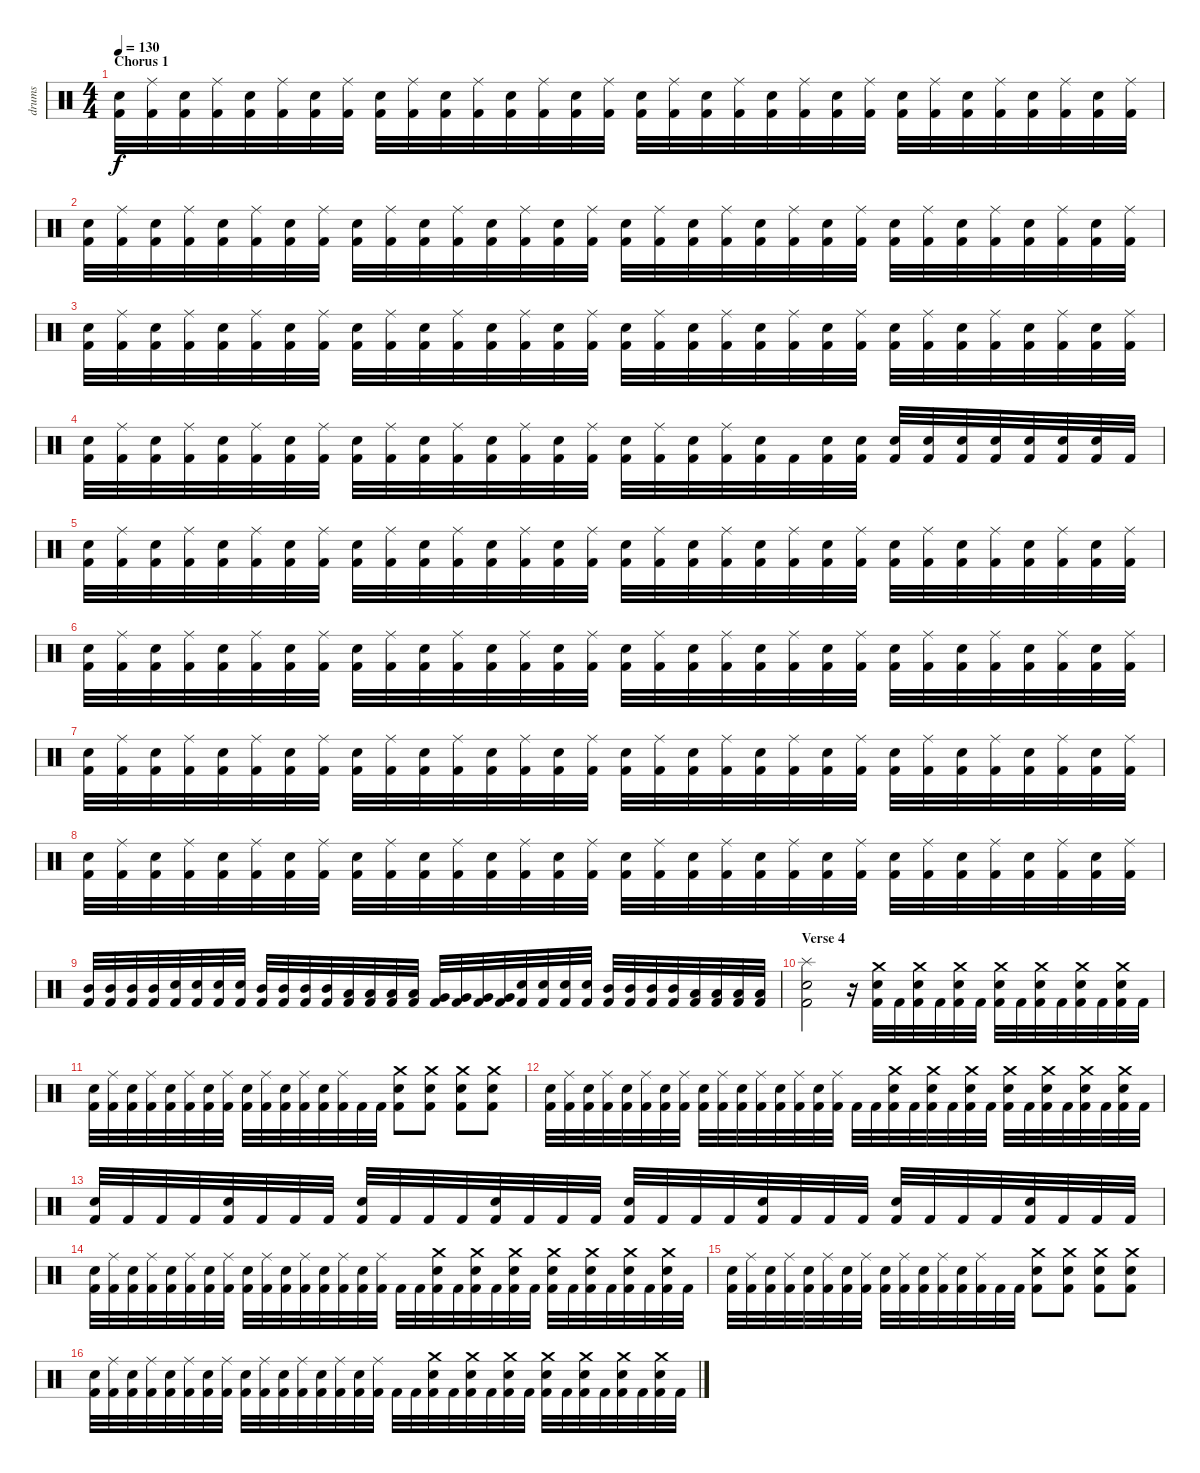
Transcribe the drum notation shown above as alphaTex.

\track ("drums" "drums") {instrument percussion}
\staff {score}
\articulation defaults
\ts (4 4)
\section ("" "Chorus 1")
\tempo 130
\clef neutral
\ks c
("Electric Snare (hit)" "Kick (hit) 2").32{dy f} ("Ride (middle)" "Kick (hit) 2").32 ("Electric Snare (hit)" "Kick (hit) 2").32 ("Ride (middle)" "Kick (hit) 2").32 ("Electric Snare (hit)" "Kick (hit) 2").32 ("Ride (middle)" "Kick (hit) 2").32 ("Electric Snare (hit)" "Kick (hit) 2").32 ("Ride (middle)" "Kick (hit) 2").32 ("Electric Snare (hit)" "Kick (hit) 2").32 ("Ride (middle)" "Kick (hit) 2").32 ("Electric Snare (hit)" "Kick (hit) 2").32 ("Ride (middle)" "Kick (hit) 2").32 ("Electric Snare (hit)" "Kick (hit) 2").32 ("Ride (middle)" "Kick (hit) 2").32 ("Electric Snare (hit)" "Kick (hit) 2").32 ("Ride (middle)" "Kick (hit) 2").32 ("Electric Snare (hit)" "Kick (hit) 2").32 ("Ride (middle)" "Kick (hit) 2").32 ("Electric Snare (hit)" "Kick (hit) 2").32 ("Ride (middle)" "Kick (hit) 2").32 ("Electric Snare (hit)" "Kick (hit) 2").32 ("Ride (middle)" "Kick (hit) 2").32 ("Electric Snare (hit)" "Kick (hit) 2").32 ("Ride (middle)" "Kick (hit) 2").32 ("Electric Snare (hit)" "Kick (hit) 2").32 ("Ride (middle)" "Kick (hit) 2").32 ("Electric Snare (hit)" "Kick (hit) 2").32 ("Ride (middle)" "Kick (hit) 2").32 ("Electric Snare (hit)" "Kick (hit) 2").32 ("Ride (middle)" "Kick (hit) 2").32 ("Electric Snare (hit)" "Kick (hit) 2").32 ("Ride (middle)" "Kick (hit) 2").32 |
("Electric Snare (hit)" "Kick (hit) 2").32 ("Ride (middle)" "Kick (hit) 2").32 ("Electric Snare (hit)" "Kick (hit) 2").32 ("Ride (middle)" "Kick (hit) 2").32 ("Electric Snare (hit)" "Kick (hit) 2").32 ("Ride (middle)" "Kick (hit) 2").32 ("Electric Snare (hit)" "Kick (hit) 2").32 ("Ride (middle)" "Kick (hit) 2").32 ("Electric Snare (hit)" "Kick (hit) 2").32 ("Ride (middle)" "Kick (hit) 2").32 ("Electric Snare (hit)" "Kick (hit) 2").32 ("Ride (middle)" "Kick (hit) 2").32 ("Electric Snare (hit)" "Kick (hit) 2").32 ("Ride (middle)" "Kick (hit) 2").32 ("Electric Snare (hit)" "Kick (hit) 2").32 ("Ride (middle)" "Kick (hit) 2").32 ("Electric Snare (hit)" "Kick (hit) 2").32 ("Ride (middle)" "Kick (hit) 2").32 ("Electric Snare (hit)" "Kick (hit) 2").32 ("Ride (middle)" "Kick (hit) 2").32 ("Electric Snare (hit)" "Kick (hit) 2").32 ("Ride (middle)" "Kick (hit) 2").32 ("Electric Snare (hit)" "Kick (hit) 2").32 ("Ride (middle)" "Kick (hit) 2").32 ("Electric Snare (hit)" "Kick (hit) 2").32 ("Ride (middle)" "Kick (hit) 2").32 ("Electric Snare (hit)" "Kick (hit) 2").32 ("Ride (middle)" "Kick (hit) 2").32 ("Electric Snare (hit)" "Kick (hit) 2").32 ("Ride (middle)" "Kick (hit) 2").32 ("Electric Snare (hit)" "Kick (hit) 2").32 ("Ride (middle)" "Kick (hit) 2").32 |
("Electric Snare (hit)" "Kick (hit) 2").32 ("Ride (middle)" "Kick (hit) 2").32 ("Electric Snare (hit)" "Kick (hit) 2").32 ("Ride (middle)" "Kick (hit) 2").32 ("Electric Snare (hit)" "Kick (hit) 2").32 ("Ride (middle)" "Kick (hit) 2").32 ("Electric Snare (hit)" "Kick (hit) 2").32 ("Ride (middle)" "Kick (hit) 2").32 ("Electric Snare (hit)" "Kick (hit) 2").32 ("Ride (middle)" "Kick (hit) 2").32 ("Electric Snare (hit)" "Kick (hit) 2").32 ("Ride (middle)" "Kick (hit) 2").32 ("Electric Snare (hit)" "Kick (hit) 2").32 ("Ride (middle)" "Kick (hit) 2").32 ("Electric Snare (hit)" "Kick (hit) 2").32 ("Ride (middle)" "Kick (hit) 2").32 ("Electric Snare (hit)" "Kick (hit) 2").32 ("Ride (middle)" "Kick (hit) 2").32 ("Electric Snare (hit)" "Kick (hit) 2").32 ("Ride (middle)" "Kick (hit) 2").32 ("Electric Snare (hit)" "Kick (hit) 2").32 ("Ride (middle)" "Kick (hit) 2").32 ("Electric Snare (hit)" "Kick (hit) 2").32 ("Ride (middle)" "Kick (hit) 2").32 ("Electric Snare (hit)" "Kick (hit) 2").32 ("Ride (middle)" "Kick (hit) 2").32 ("Electric Snare (hit)" "Kick (hit) 2").32 ("Ride (middle)" "Kick (hit) 2").32 ("Electric Snare (hit)" "Kick (hit) 2").32 ("Ride (middle)" "Kick (hit) 2").32 ("Electric Snare (hit)" "Kick (hit) 2").32 ("Ride (middle)" "Kick (hit) 2").32 |
("Electric Snare (hit)" "Kick (hit) 2").32 ("Ride (middle)" "Kick (hit) 2").32 ("Electric Snare (hit)" "Kick (hit) 2").32 ("Ride (middle)" "Kick (hit) 2").32 ("Electric Snare (hit)" "Kick (hit) 2").32 ("Ride (middle)" "Kick (hit) 2").32 ("Electric Snare (hit)" "Kick (hit) 2").32 ("Ride (middle)" "Kick (hit) 2").32 ("Electric Snare (hit)" "Kick (hit) 2").32 ("Ride (middle)" "Kick (hit) 2").32 ("Electric Snare (hit)" "Kick (hit) 2").32 ("Ride (middle)" "Kick (hit) 2").32 ("Electric Snare (hit)" "Kick (hit) 2").32 ("Ride (middle)" "Kick (hit) 2").32 ("Electric Snare (hit)" "Kick (hit) 2").32 ("Ride (middle)" "Kick (hit) 2").32 ("Electric Snare (hit)" "Kick (hit) 2").32 ("Ride (middle)" "Kick (hit) 2").32 ("Electric Snare (hit)" "Kick (hit) 2").32 ("Ride (middle)" "Kick (hit) 2").32 ("Electric Snare (hit)" "Kick (hit) 2").32 "Kick (hit) 2".32 ("Electric Snare (hit)" "Kick (hit) 2").32 ("Electric Snare (hit)" "Kick (hit) 2").32 ("Electric Snare (hit)" "Kick (hit) 2").32 ("Electric Snare (hit)" "Kick (hit) 2").32 ("Electric Snare (hit)" "Kick (hit) 2").32 ("Electric Snare (hit)" "Kick (hit) 2").32 ("Electric Snare (hit)" "Kick (hit) 2").32 ("Electric Snare (hit)" "Kick (hit) 2").32 ("Electric Snare (hit)" "Kick (hit) 2").32 "Kick (hit) 2".32 |
("Electric Snare (hit)" "Kick (hit) 2").32 ("Ride (middle)" "Kick (hit) 2").32 ("Electric Snare (hit)" "Kick (hit) 2").32 ("Ride (middle)" "Kick (hit) 2").32 ("Electric Snare (hit)" "Kick (hit) 2").32 ("Ride (middle)" "Kick (hit) 2").32 ("Electric Snare (hit)" "Kick (hit) 2").32 ("Ride (middle)" "Kick (hit) 2").32 ("Electric Snare (hit)" "Kick (hit) 2").32 ("Ride (middle)" "Kick (hit) 2").32 ("Electric Snare (hit)" "Kick (hit) 2").32 ("Ride (middle)" "Kick (hit) 2").32 ("Electric Snare (hit)" "Kick (hit) 2").32 ("Ride (middle)" "Kick (hit) 2").32 ("Electric Snare (hit)" "Kick (hit) 2").32 ("Ride (middle)" "Kick (hit) 2").32 ("Electric Snare (hit)" "Kick (hit) 2").32 ("Ride (middle)" "Kick (hit) 2").32 ("Electric Snare (hit)" "Kick (hit) 2").32 ("Ride (middle)" "Kick (hit) 2").32 ("Electric Snare (hit)" "Kick (hit) 2").32 ("Ride (middle)" "Kick (hit) 2").32 ("Electric Snare (hit)" "Kick (hit) 2").32 ("Ride (middle)" "Kick (hit) 2").32 ("Electric Snare (hit)" "Kick (hit) 2").32 ("Ride (middle)" "Kick (hit) 2").32 ("Electric Snare (hit)" "Kick (hit) 2").32 ("Ride (middle)" "Kick (hit) 2").32 ("Electric Snare (hit)" "Kick (hit) 2").32 ("Ride (middle)" "Kick (hit) 2").32 ("Electric Snare (hit)" "Kick (hit) 2").32 ("Ride (middle)" "Kick (hit) 2").32 |
("Electric Snare (hit)" "Kick (hit) 2").32 ("Ride (middle)" "Kick (hit) 2").32 ("Electric Snare (hit)" "Kick (hit) 2").32 ("Ride (middle)" "Kick (hit) 2").32 ("Electric Snare (hit)" "Kick (hit) 2").32 ("Ride (middle)" "Kick (hit) 2").32 ("Electric Snare (hit)" "Kick (hit) 2").32 ("Ride (middle)" "Kick (hit) 2").32 ("Electric Snare (hit)" "Kick (hit) 2").32 ("Ride (middle)" "Kick (hit) 2").32 ("Electric Snare (hit)" "Kick (hit) 2").32 ("Ride (middle)" "Kick (hit) 2").32 ("Electric Snare (hit)" "Kick (hit) 2").32 ("Ride (middle)" "Kick (hit) 2").32 ("Electric Snare (hit)" "Kick (hit) 2").32 ("Ride (middle)" "Kick (hit) 2").32 ("Electric Snare (hit)" "Kick (hit) 2").32 ("Ride (middle)" "Kick (hit) 2").32 ("Electric Snare (hit)" "Kick (hit) 2").32 ("Ride (middle)" "Kick (hit) 2").32 ("Electric Snare (hit)" "Kick (hit) 2").32 ("Ride (middle)" "Kick (hit) 2").32 ("Electric Snare (hit)" "Kick (hit) 2").32 ("Ride (middle)" "Kick (hit) 2").32 ("Electric Snare (hit)" "Kick (hit) 2").32 ("Ride (middle)" "Kick (hit) 2").32 ("Electric Snare (hit)" "Kick (hit) 2").32 ("Ride (middle)" "Kick (hit) 2").32 ("Electric Snare (hit)" "Kick (hit) 2").32 ("Ride (middle)" "Kick (hit) 2").32 ("Electric Snare (hit)" "Kick (hit) 2").32 ("Ride (middle)" "Kick (hit) 2").32 |
("Electric Snare (hit)" "Kick (hit) 2").32 ("Ride (middle)" "Kick (hit) 2").32 ("Electric Snare (hit)" "Kick (hit) 2").32 ("Ride (middle)" "Kick (hit) 2").32 ("Electric Snare (hit)" "Kick (hit) 2").32 ("Ride (middle)" "Kick (hit) 2").32 ("Electric Snare (hit)" "Kick (hit) 2").32 ("Ride (middle)" "Kick (hit) 2").32 ("Electric Snare (hit)" "Kick (hit) 2").32 ("Ride (middle)" "Kick (hit) 2").32 ("Electric Snare (hit)" "Kick (hit) 2").32 ("Ride (middle)" "Kick (hit) 2").32 ("Electric Snare (hit)" "Kick (hit) 2").32 ("Ride (middle)" "Kick (hit) 2").32 ("Electric Snare (hit)" "Kick (hit) 2").32 ("Ride (middle)" "Kick (hit) 2").32 ("Electric Snare (hit)" "Kick (hit) 2").32 ("Ride (middle)" "Kick (hit) 2").32 ("Electric Snare (hit)" "Kick (hit) 2").32 ("Ride (middle)" "Kick (hit) 2").32 ("Electric Snare (hit)" "Kick (hit) 2").32 ("Ride (middle)" "Kick (hit) 2").32 ("Electric Snare (hit)" "Kick (hit) 2").32 ("Ride (middle)" "Kick (hit) 2").32 ("Electric Snare (hit)" "Kick (hit) 2").32 ("Ride (middle)" "Kick (hit) 2").32 ("Electric Snare (hit)" "Kick (hit) 2").32 ("Ride (middle)" "Kick (hit) 2").32 ("Electric Snare (hit)" "Kick (hit) 2").32 ("Ride (middle)" "Kick (hit) 2").32 ("Electric Snare (hit)" "Kick (hit) 2").32 ("Ride (middle)" "Kick (hit) 2").32 |
("Electric Snare (hit)" "Kick (hit) 2").32 ("Ride (middle)" "Kick (hit) 2").32 ("Electric Snare (hit)" "Kick (hit) 2").32 ("Ride (middle)" "Kick (hit) 2").32 ("Electric Snare (hit)" "Kick (hit) 2").32 ("Ride (middle)" "Kick (hit) 2").32 ("Electric Snare (hit)" "Kick (hit) 2").32 ("Ride (middle)" "Kick (hit) 2").32 ("Electric Snare (hit)" "Kick (hit) 2").32 ("Ride (middle)" "Kick (hit) 2").32 ("Electric Snare (hit)" "Kick (hit) 2").32 ("Ride (middle)" "Kick (hit) 2").32 ("Electric Snare (hit)" "Kick (hit) 2").32 ("Ride (middle)" "Kick (hit) 2").32 ("Electric Snare (hit)" "Kick (hit) 2").32 ("Ride (middle)" "Kick (hit) 2").32 ("Electric Snare (hit)" "Kick (hit) 2").32 ("Ride (middle)" "Kick (hit) 2").32 ("Electric Snare (hit)" "Kick (hit) 2").32 ("Ride (middle)" "Kick (hit) 2").32 ("Electric Snare (hit)" "Kick (hit) 2").32 ("Ride (middle)" "Kick (hit) 2").32 ("Electric Snare (hit)" "Kick (hit) 2").32 ("Ride (middle)" "Kick (hit) 2").32 ("Electric Snare (hit)" "Kick (hit) 2").32 ("Ride (middle)" "Kick (hit) 2").32 ("Electric Snare (hit)" "Kick (hit) 2").32 ("Ride (middle)" "Kick (hit) 2").32 ("Electric Snare (hit)" "Kick (hit) 2").32 ("Ride (middle)" "Kick (hit) 2").32 ("Electric Snare (hit)" "Kick (hit) 2").32 ("Ride (middle)" "Kick (hit) 2").32 |
("Mid Tom (hit)" "Kick (hit) 2").32 ("Mid Tom (hit)" "Kick (hit) 2").32 ("Mid Tom (hit)" "Kick (hit) 2").32 ("Mid Tom (hit)" "Kick (hit) 2").32 ("Electric Snare (hit)" "Kick (hit) 2").32 ("Electric Snare (hit)" "Kick (hit) 2").32 ("Electric Snare (hit)" "Kick (hit) 2").32 ("Electric Snare (hit)" "Kick (hit) 2").32 ("Mid Tom (hit)" "Kick (hit) 2").32 ("Mid Tom (hit)" "Kick (hit) 2").32 ("Mid Tom (hit)" "Kick (hit) 2").32 ("Mid Tom (hit)" "Kick (hit) 2").32 ("Low Tom (hit)" "Kick (hit) 2").32 ("Low Tom (hit)" "Kick (hit) 2").32 ("Low Tom (hit)" "Kick (hit) 2").32 ("Low Tom (hit)" "Kick (hit) 2").32 ("Very Low Tom (hit)" "Kick (hit) 2").32 ("Very Low Tom (hit)" "Kick (hit) 2").32 ("Very Low Tom (hit)" "Kick (hit) 2").32 ("Very Low Tom (hit)" "Kick (hit) 2").32 ("Electric Snare (hit)" "Kick (hit) 2").32 ("Electric Snare (hit)" "Kick (hit) 2").32 ("Electric Snare (hit)" "Kick (hit) 2").32 ("Electric Snare (hit)" "Kick (hit) 2").32 ("Mid Tom (hit)" "Kick (hit) 2").32 ("Mid Tom (hit)" "Kick (hit) 2").32 ("Mid Tom (hit)" "Kick (hit) 2").32 ("Mid Tom (hit)" "Kick (hit) 2").32 ("Low Tom (hit)" "Kick (hit) 2").32 ("Low Tom (hit)" "Kick (hit) 2").32 ("Low Tom (hit)" "Kick (hit) 2").32 ("Low Tom (hit)" "Kick (hit) 2").32 |
\section ("" "Verse 4")
("Splash (hit)" "Electric Snare (hit)" "Kick (hit) 2").2 r.16 ("Crash medium (hit)" "Electric Snare (hit)" "Kick (hit) 2").32 "Kick (hit) 2".32 ("Crash medium (hit)" "Electric Snare (hit)" "Kick (hit) 2").32 "Kick (hit) 2".32 ("Crash medium (hit)" "Electric Snare (hit)" "Kick (hit) 2").32 "Kick (hit) 2".32 ("Crash medium (hit)" "Electric Snare (hit)" "Kick (hit) 2").32 "Kick (hit) 2".32 ("Crash medium (hit)" "Electric Snare (hit)" "Kick (hit) 2").32 "Kick (hit) 2".32 ("Crash medium (hit)" "Electric Snare (hit)" "Kick (hit) 2").32 "Kick (hit) 2".32 ("Crash medium (hit)" "Electric Snare (hit)" "Kick (hit) 2").32 "Kick (hit) 2".32 |
("Electric Snare (hit)" "Kick (hit) 2").32 ("Ride (middle)" "Kick (hit) 2").32 ("Electric Snare (hit)" "Kick (hit) 2").32 ("Ride (middle)" "Kick (hit) 2").32 ("Electric Snare (hit)" "Kick (hit) 2").32 ("Ride (middle)" "Kick (hit) 2").32 ("Electric Snare (hit)" "Kick (hit) 2").32 ("Ride (middle)" "Kick (hit) 2").32 ("Electric Snare (hit)" "Kick (hit) 2").32 ("Ride (middle)" "Kick (hit) 2").32 ("Electric Snare (hit)" "Kick (hit) 2").32 ("Ride (middle)" "Kick (hit) 2").32 ("Electric Snare (hit)" "Kick (hit) 2").32 ("Ride (middle)" "Kick (hit) 2").32 "Kick (hit) 2".32 "Kick (hit) 2".32 ("Crash medium (hit)" "Electric Snare (hit)" "Kick (hit) 2").8 ("Crash medium (hit)" "Electric Snare (hit)" "Kick (hit) 2").8 ("Crash medium (hit)" "Electric Snare (hit)" "Kick (hit) 2").8 ("Crash medium (hit)" "Electric Snare (hit)" "Kick (hit) 2").8 |
("Electric Snare (hit)" "Kick (hit) 2").32 ("Ride (middle)" "Kick (hit) 2").32 ("Electric Snare (hit)" "Kick (hit) 2").32 ("Ride (middle)" "Kick (hit) 2").32 ("Electric Snare (hit)" "Kick (hit) 2").32 ("Ride (middle)" "Kick (hit) 2").32 ("Electric Snare (hit)" "Kick (hit) 2").32 ("Ride (middle)" "Kick (hit) 2").32 ("Electric Snare (hit)" "Kick (hit) 2").32 ("Ride (middle)" "Kick (hit) 2").32 ("Electric Snare (hit)" "Kick (hit) 2").32 ("Ride (middle)" "Kick (hit) 2").32 ("Electric Snare (hit)" "Kick (hit) 2").32 ("Ride (middle)" "Kick (hit) 2").32 ("Electric Snare (hit)" "Kick (hit) 2").32 ("Ride (middle)" "Kick (hit) 2").32 "Kick (hit) 2".32 "Kick (hit) 2".32 ("Crash medium (hit)" "Electric Snare (hit)" "Kick (hit) 2").32 "Kick (hit) 2".32 ("Crash medium (hit)" "Electric Snare (hit)" "Kick (hit) 2").32 "Kick (hit) 2".32 ("Crash medium (hit)" "Electric Snare (hit)" "Kick (hit) 2").32 "Kick (hit) 2".32 ("Crash medium (hit)" "Electric Snare (hit)" "Kick (hit) 2").32 "Kick (hit) 2".32 ("Crash medium (hit)" "Electric Snare (hit)" "Kick (hit) 2").32 "Kick (hit) 2".32 ("Crash medium (hit)" "Electric Snare (hit)" "Kick (hit) 2").32 "Kick (hit) 2".32 ("Crash medium (hit)" "Electric Snare (hit)" "Kick (hit) 2").32 "Kick (hit) 2".32 |
("Electric Snare (hit)" "Kick (hit) 2").32 "Kick (hit) 2".32 "Kick (hit) 2".32 "Kick (hit) 2".32 ("Electric Snare (hit)" "Kick (hit) 2").32 "Kick (hit) 2".32 "Kick (hit) 2".32 "Kick (hit) 2".32 ("Electric Snare (hit)" "Kick (hit) 2").32 "Kick (hit) 2".32 "Kick (hit) 2".32 "Kick (hit) 2".32 ("Electric Snare (hit)" "Kick (hit) 2").32 "Kick (hit) 2".32 "Kick (hit) 2".32 "Kick (hit) 2".32 ("Electric Snare (hit)" "Kick (hit) 2").32 "Kick (hit) 2".32 "Kick (hit) 2".32 "Kick (hit) 2".32 ("Electric Snare (hit)" "Kick (hit) 2").32 "Kick (hit) 2".32 "Kick (hit) 2".32 "Kick (hit) 2".32 ("Electric Snare (hit)" "Kick (hit) 2").32 "Kick (hit) 2".32 "Kick (hit) 2".32 "Kick (hit) 2".32 ("Electric Snare (hit)" "Kick (hit) 2").32 "Kick (hit) 2".32 "Kick (hit) 2".32 "Kick (hit) 2".32 |
("Electric Snare (hit)" "Kick (hit) 2").32 ("Ride (middle)" "Kick (hit) 2").32 ("Electric Snare (hit)" "Kick (hit) 2").32 ("Ride (middle)" "Kick (hit) 2").32 ("Electric Snare (hit)" "Kick (hit) 2").32 ("Ride (middle)" "Kick (hit) 2").32 ("Electric Snare (hit)" "Kick (hit) 2").32 ("Ride (middle)" "Kick (hit) 2").32 ("Electric Snare (hit)" "Kick (hit) 2").32 ("Ride (middle)" "Kick (hit) 2").32 ("Electric Snare (hit)" "Kick (hit) 2").32 ("Ride (middle)" "Kick (hit) 2").32 ("Electric Snare (hit)" "Kick (hit) 2").32 ("Ride (middle)" "Kick (hit) 2").32 ("Electric Snare (hit)" "Kick (hit) 2").32 ("Ride (middle)" "Kick (hit) 2").32 "Kick (hit) 2".32 "Kick (hit) 2".32 ("Crash medium (hit)" "Electric Snare (hit)" "Kick (hit) 2").32 "Kick (hit) 2".32 ("Crash medium (hit)" "Electric Snare (hit)" "Kick (hit) 2").32 "Kick (hit) 2".32 ("Crash medium (hit)" "Electric Snare (hit)" "Kick (hit) 2").32 "Kick (hit) 2".32 ("Crash medium (hit)" "Electric Snare (hit)" "Kick (hit) 2").32 "Kick (hit) 2".32 ("Crash medium (hit)" "Electric Snare (hit)" "Kick (hit) 2").32 "Kick (hit) 2".32 ("Crash medium (hit)" "Electric Snare (hit)" "Kick (hit) 2").32 "Kick (hit) 2".32 ("Crash medium (hit)" "Electric Snare (hit)" "Kick (hit) 2").32 "Kick (hit) 2".32 |
("Electric Snare (hit)" "Kick (hit) 2").32 ("Ride (middle)" "Kick (hit) 2").32 ("Electric Snare (hit)" "Kick (hit) 2").32 ("Ride (middle)" "Kick (hit) 2").32 ("Electric Snare (hit)" "Kick (hit) 2").32 ("Ride (middle)" "Kick (hit) 2").32 ("Electric Snare (hit)" "Kick (hit) 2").32 ("Ride (middle)" "Kick (hit) 2").32 ("Electric Snare (hit)" "Kick (hit) 2").32 ("Ride (middle)" "Kick (hit) 2").32 ("Electric Snare (hit)" "Kick (hit) 2").32 ("Ride (middle)" "Kick (hit) 2").32 ("Electric Snare (hit)" "Kick (hit) 2").32 ("Ride (middle)" "Kick (hit) 2").32 "Kick (hit) 2".32 "Kick (hit) 2".32 ("Crash medium (hit)" "Electric Snare (hit)" "Kick (hit) 2").8 ("Crash medium (hit)" "Electric Snare (hit)" "Kick (hit) 2").8 ("Crash medium (hit)" "Electric Snare (hit)" "Kick (hit) 2").8 ("Crash medium (hit)" "Electric Snare (hit)" "Kick (hit) 2").8 |
("Electric Snare (hit)" "Kick (hit) 2").32 ("Ride (middle)" "Kick (hit) 2").32 ("Electric Snare (hit)" "Kick (hit) 2").32 ("Ride (middle)" "Kick (hit) 2").32 ("Electric Snare (hit)" "Kick (hit) 2").32 ("Ride (middle)" "Kick (hit) 2").32 ("Electric Snare (hit)" "Kick (hit) 2").32 ("Ride (middle)" "Kick (hit) 2").32 ("Electric Snare (hit)" "Kick (hit) 2").32 ("Ride (middle)" "Kick (hit) 2").32 ("Electric Snare (hit)" "Kick (hit) 2").32 ("Ride (middle)" "Kick (hit) 2").32 ("Electric Snare (hit)" "Kick (hit) 2").32 ("Ride (middle)" "Kick (hit) 2").32 ("Electric Snare (hit)" "Kick (hit) 2").32 ("Ride (middle)" "Kick (hit) 2").32 "Kick (hit) 2".32 "Kick (hit) 2".32 ("Crash medium (hit)" "Electric Snare (hit)" "Kick (hit) 2").32 "Kick (hit) 2".32 ("Crash medium (hit)" "Electric Snare (hit)" "Kick (hit) 2").32 "Kick (hit) 2".32 ("Crash medium (hit)" "Electric Snare (hit)" "Kick (hit) 2").32 "Kick (hit) 2".32 ("Crash medium (hit)" "Electric Snare (hit)" "Kick (hit) 2").32 "Kick (hit) 2".32 ("Crash medium (hit)" "Electric Snare (hit)" "Kick (hit) 2").32 "Kick (hit) 2".32 ("Crash medium (hit)" "Electric Snare (hit)" "Kick (hit) 2").32 "Kick (hit) 2".32 ("Crash medium (hit)" "Electric Snare (hit)" "Kick (hit) 2").32 "Kick (hit) 2".32
